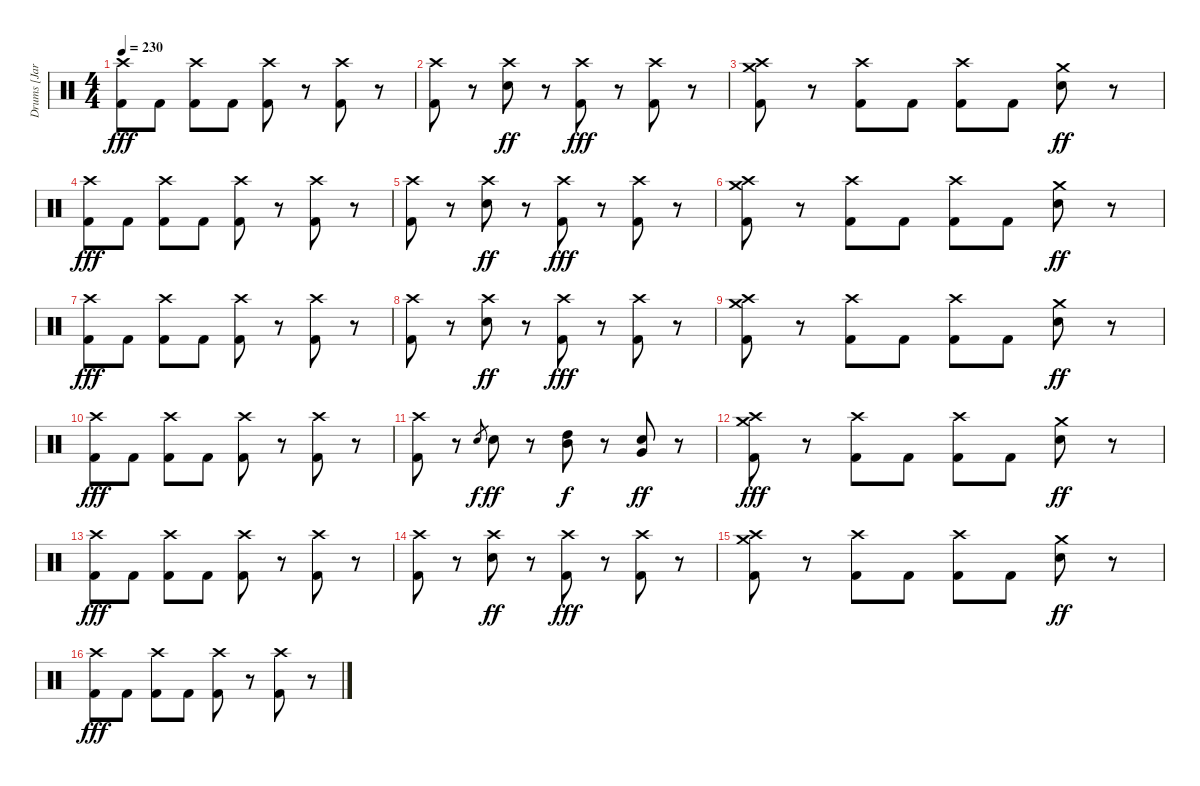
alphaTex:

\track ("Drums [Jared]" "Drums [Jar") {instrument percussion}
\staff {score}
\articulation defaults
\ts (4 4)
\tempo 230
\clef neutral
\ks c
("Crash high (hit)" "Kick (hit) 2").8{dy fff} "Kick (hit) 2".8 ("Crash high (hit)" "Kick (hit) 2").8 "Kick (hit) 2".8 ("Crash high (hit)" "Kick (hit) 2").8 r.8 ("Crash high (hit)" "Kick (hit) 2").8 r.8 |
("Crash high (hit)" "Kick (hit) 2").8 r.8 ("Crash high (hit)" "Electric Snare (hit)").8{dy ff} r.8 ("Crash high (hit)" "Kick (hit) 2").8{dy fff} r.8 ("Crash high (hit)" "Kick (hit) 2").8 r.8 |
("Crash medium (hit)" "Crash high (hit)" "Kick (hit) 2").8 r.8 ("Crash high (hit)" "Kick (hit) 2").8 "Kick (hit) 2".8 ("Crash high (hit)" "Kick (hit) 2").8 "Kick (hit) 2".8 ("Crash medium (hit)" "Electric Snare (hit)").8{dy ff} r.8 |
("Crash high (hit)" "Kick (hit) 2").8{dy fff} "Kick (hit) 2".8 ("Crash high (hit)" "Kick (hit) 2").8 "Kick (hit) 2".8 ("Crash high (hit)" "Kick (hit) 2").8 r.8 ("Crash high (hit)" "Kick (hit) 2").8 r.8 |
("Crash high (hit)" "Kick (hit) 2").8 r.8 ("Crash high (hit)" "Electric Snare (hit)").8{dy ff} r.8 ("Crash high (hit)" "Kick (hit) 2").8{dy fff} r.8 ("Crash high (hit)" "Kick (hit) 2").8 r.8 |
("Crash medium (hit)" "Crash high (hit)" "Kick (hit) 2").8 r.8 ("Crash high (hit)" "Kick (hit) 2").8 "Kick (hit) 2".8 ("Crash high (hit)" "Kick (hit) 2").8 "Kick (hit) 2".8 ("Crash medium (hit)" "Electric Snare (hit)").8{dy ff} r.8 |
("Crash high (hit)" "Kick (hit) 2").8{dy fff} "Kick (hit) 2".8 ("Crash high (hit)" "Kick (hit) 2").8 "Kick (hit) 2".8 ("Crash high (hit)" "Kick (hit) 2").8 r.8 ("Crash high (hit)" "Kick (hit) 2").8 r.8 |
("Crash high (hit)" "Kick (hit) 2").8 r.8 ("Crash high (hit)" "Electric Snare (hit)").8{dy ff} r.8 ("Crash high (hit)" "Kick (hit) 2").8{dy fff} r.8 ("Crash high (hit)" "Kick (hit) 2").8 r.8 |
("Crash medium (hit)" "Crash high (hit)" "Kick (hit) 2").8 r.8 ("Crash high (hit)" "Kick (hit) 2").8 "Kick (hit) 2".8 ("Crash high (hit)" "Kick (hit) 2").8 "Kick (hit) 2".8 ("Crash medium (hit)" "Electric Snare (hit)").8{dy ff} r.8 |
("Crash high (hit)" "Kick (hit) 2").8{dy fff} "Kick (hit) 2".8 ("Crash high (hit)" "Kick (hit) 2").8 "Kick (hit) 2".8 ("Crash high (hit)" "Kick (hit) 2").8 r.8 ("Crash high (hit)" "Kick (hit) 2").8 r.8 |
("Crash high (hit)" "Kick (hit) 2").8 r.8 "Electric Snare (hit)".8{gr dy f} "Electric Snare (hit)".8{dy ff} r.8 ("High Tom (hit)" "Mid Tom (hit)").8{dy f} r.8 ("Very Low Tom (hit)" "Electric Snare (hit)").8{dy ff} r.8 |
("Crash medium (hit)" "Crash high (hit)" "Kick (hit) 2").8{dy fff} r.8 ("Crash high (hit)" "Kick (hit) 2").8 "Kick (hit) 2".8 ("Crash high (hit)" "Kick (hit) 2").8 "Kick (hit) 2".8 ("Crash medium (hit)" "Electric Snare (hit)").8{dy ff} r.8 |
("Crash high (hit)" "Kick (hit) 2").8{dy fff} "Kick (hit) 2".8 ("Crash high (hit)" "Kick (hit) 2").8 "Kick (hit) 2".8 ("Crash high (hit)" "Kick (hit) 2").8 r.8 ("Crash high (hit)" "Kick (hit) 2").8 r.8 |
("Crash high (hit)" "Kick (hit) 2").8 r.8 ("Crash high (hit)" "Electric Snare (hit)").8{dy ff} r.8 ("Crash high (hit)" "Kick (hit) 2").8{dy fff} r.8 ("Crash high (hit)" "Kick (hit) 2").8 r.8 |
("Crash medium (hit)" "Crash high (hit)" "Kick (hit) 2").8 r.8 ("Crash high (hit)" "Kick (hit) 2").8 "Kick (hit) 2".8 ("Crash high (hit)" "Kick (hit) 2").8 "Kick (hit) 2".8 ("Crash medium (hit)" "Electric Snare (hit)").8{dy ff} r.8 |
("Crash high (hit)" "Kick (hit) 2").8{dy fff} "Kick (hit) 2".8 ("Crash high (hit)" "Kick (hit) 2").8 "Kick (hit) 2".8 ("Crash high (hit)" "Kick (hit) 2").8 r.8 ("Crash high (hit)" "Kick (hit) 2").8 r.8
